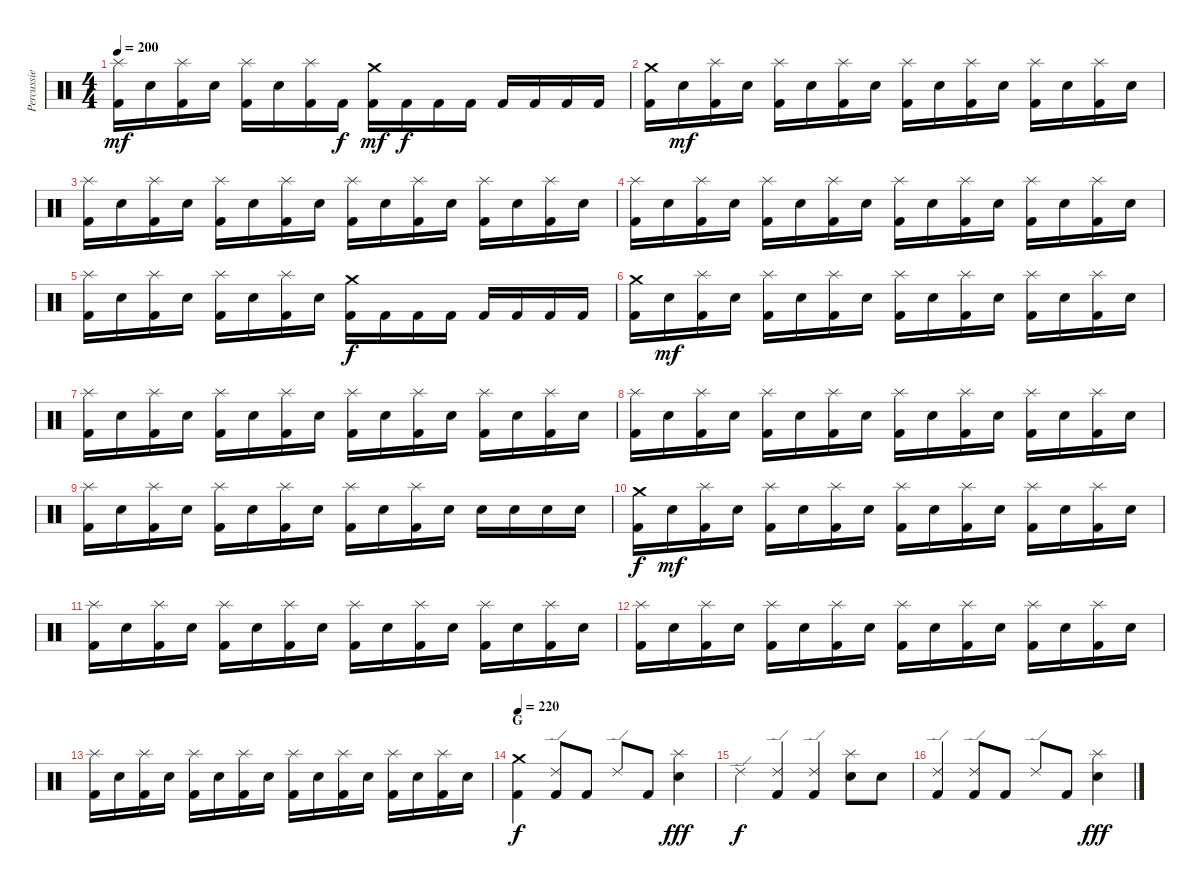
\track ("Percussie" "Percussie") {instrument percussion}
\staff {score}
\articulation defaults
\ts (4 4)
\tempo 200
\clef neutral
\ks c
("Splash (hit)" "Kick (hit) 2").16{dy mf} "Electric Snare (hit)".16 ("Splash (hit)" "Kick (hit) 2").16 "Electric Snare (hit)".16 ("Splash (hit)" "Kick (hit) 2").16 "Electric Snare (hit)".16 ("Splash (hit)" "Kick (hit) 2").16 "Kick (hit) 2".16{dy f} ("Crash medium (hit)" "Kick (hit) 2").16{dy mf} "Kick (hit) 2".16{dy f} "Kick (hit) 2".16 "Kick (hit) 2".16 "Kick (hit) 2".16 "Kick (hit) 2".16 "Kick (hit) 2".16 "Kick (hit) 2".16 |
("Crash medium (hit)" "Kick (hit) 2").16 "Electric Snare (hit)".16{dy mf} ("Splash (hit)" "Kick (hit) 2").16 "Electric Snare (hit)".16 ("Splash (hit)" "Kick (hit) 2").16 "Electric Snare (hit)".16 ("Splash (hit)" "Kick (hit) 2").16 "Electric Snare (hit)".16 ("Splash (hit)" "Kick (hit) 2").16 "Electric Snare (hit)".16 ("Splash (hit)" "Kick (hit) 2").16 "Electric Snare (hit)".16 ("Splash (hit)" "Kick (hit) 2").16 "Electric Snare (hit)".16 ("Splash (hit)" "Kick (hit) 2").16 "Electric Snare (hit)".16 |
("Splash (hit)" "Kick (hit) 2").16 "Electric Snare (hit)".16 ("Splash (hit)" "Kick (hit) 2").16 "Electric Snare (hit)".16 ("Splash (hit)" "Kick (hit) 2").16 "Electric Snare (hit)".16 ("Splash (hit)" "Kick (hit) 2").16 "Electric Snare (hit)".16 ("Splash (hit)" "Kick (hit) 2").16 "Electric Snare (hit)".16 ("Splash (hit)" "Kick (hit) 2").16 "Electric Snare (hit)".16 ("Splash (hit)" "Kick (hit) 2").16 "Electric Snare (hit)".16 ("Splash (hit)" "Kick (hit) 2").16 "Electric Snare (hit)".16 |
("Splash (hit)" "Kick (hit) 2").16 "Electric Snare (hit)".16 ("Splash (hit)" "Kick (hit) 2").16 "Electric Snare (hit)".16 ("Splash (hit)" "Kick (hit) 2").16 "Electric Snare (hit)".16 ("Splash (hit)" "Kick (hit) 2").16 "Electric Snare (hit)".16 ("Splash (hit)" "Kick (hit) 2").16 "Electric Snare (hit)".16 ("Splash (hit)" "Kick (hit) 2").16 "Electric Snare (hit)".16 ("Splash (hit)" "Kick (hit) 2").16 "Electric Snare (hit)".16 ("Splash (hit)" "Kick (hit) 2").16 "Electric Snare (hit)".16 |
("Splash (hit)" "Kick (hit) 2").16 "Electric Snare (hit)".16 ("Splash (hit)" "Kick (hit) 2").16 "Electric Snare (hit)".16 ("Splash (hit)" "Kick (hit) 2").16 "Electric Snare (hit)".16 ("Splash (hit)" "Kick (hit) 2").16 "Electric Snare (hit)".16 ("Crash medium (hit)" "Kick (hit) 2").16{dy f} "Kick (hit) 2".16 "Kick (hit) 2".16 "Kick (hit) 2".16 "Kick (hit) 2".16 "Kick (hit) 2".16 "Kick (hit) 2".16 "Kick (hit) 2".16 |
("Crash medium (hit)" "Kick (hit) 2").16 "Electric Snare (hit)".16{dy mf} ("Splash (hit)" "Kick (hit) 2").16 "Electric Snare (hit)".16 ("Splash (hit)" "Kick (hit) 2").16 "Electric Snare (hit)".16 ("Splash (hit)" "Kick (hit) 2").16 "Electric Snare (hit)".16 ("Splash (hit)" "Kick (hit) 2").16 "Electric Snare (hit)".16 ("Splash (hit)" "Kick (hit) 2").16 "Electric Snare (hit)".16 ("Splash (hit)" "Kick (hit) 2").16 "Electric Snare (hit)".16 ("Splash (hit)" "Kick (hit) 2").16 "Electric Snare (hit)".16 |
("Splash (hit)" "Kick (hit) 2").16 "Electric Snare (hit)".16 ("Splash (hit)" "Kick (hit) 2").16 "Electric Snare (hit)".16 ("Splash (hit)" "Kick (hit) 2").16 "Electric Snare (hit)".16 ("Splash (hit)" "Kick (hit) 2").16 "Electric Snare (hit)".16 ("Splash (hit)" "Kick (hit) 2").16 "Electric Snare (hit)".16 ("Splash (hit)" "Kick (hit) 2").16 "Electric Snare (hit)".16 ("Splash (hit)" "Kick (hit) 2").16 "Electric Snare (hit)".16 ("Splash (hit)" "Kick (hit) 2").16 "Electric Snare (hit)".16 |
("Splash (hit)" "Kick (hit) 2").16 "Electric Snare (hit)".16 ("Splash (hit)" "Kick (hit) 2").16 "Electric Snare (hit)".16 ("Splash (hit)" "Kick (hit) 2").16 "Electric Snare (hit)".16 ("Splash (hit)" "Kick (hit) 2").16 "Electric Snare (hit)".16 ("Splash (hit)" "Kick (hit) 2").16 "Electric Snare (hit)".16 ("Splash (hit)" "Kick (hit) 2").16 "Electric Snare (hit)".16 ("Splash (hit)" "Kick (hit) 2").16 "Electric Snare (hit)".16 ("Splash (hit)" "Kick (hit) 2").16 "Electric Snare (hit)".16 |
("Splash (hit)" "Kick (hit) 2").16 "Electric Snare (hit)".16 ("Splash (hit)" "Kick (hit) 2").16 "Electric Snare (hit)".16 ("Splash (hit)" "Kick (hit) 2").16 "Electric Snare (hit)".16 ("Splash (hit)" "Kick (hit) 2").16 "Electric Snare (hit)".16 ("Splash (hit)" "Kick (hit) 2").16 "Electric Snare (hit)".16 ("Splash (hit)" "Kick (hit) 2").16 "Electric Snare (hit)".16 "Electric Snare (hit)".16 "Electric Snare (hit)".16 "Electric Snare (hit)".16 "Electric Snare (hit)".16 |
("Crash medium (hit)" "Kick (hit) 2").16{dy f} "Electric Snare (hit)".16{dy mf} ("Splash (hit)" "Kick (hit) 2").16 "Electric Snare (hit)".16 ("Splash (hit)" "Kick (hit) 2").16 "Electric Snare (hit)".16 ("Splash (hit)" "Kick (hit) 2").16 "Electric Snare (hit)".16 ("Splash (hit)" "Kick (hit) 2").16 "Electric Snare (hit)".16 ("Splash (hit)" "Kick (hit) 2").16 "Electric Snare (hit)".16 ("Splash (hit)" "Kick (hit) 2").16 "Electric Snare (hit)".16 ("Splash (hit)" "Kick (hit) 2").16 "Electric Snare (hit)".16 |
("Splash (hit)" "Kick (hit) 2").16 "Electric Snare (hit)".16 ("Splash (hit)" "Kick (hit) 2").16 "Electric Snare (hit)".16 ("Splash (hit)" "Kick (hit) 2").16 "Electric Snare (hit)".16 ("Splash (hit)" "Kick (hit) 2").16 "Electric Snare (hit)".16 ("Splash (hit)" "Kick (hit) 2").16 "Electric Snare (hit)".16 ("Splash (hit)" "Kick (hit) 2").16 "Electric Snare (hit)".16 ("Splash (hit)" "Kick (hit) 2").16 "Electric Snare (hit)".16 ("Splash (hit)" "Kick (hit) 2").16 "Electric Snare (hit)".16 |
("Splash (hit)" "Kick (hit) 2").16 "Electric Snare (hit)".16 ("Splash (hit)" "Kick (hit) 2").16 "Electric Snare (hit)".16 ("Splash (hit)" "Kick (hit) 2").16 "Electric Snare (hit)".16 ("Splash (hit)" "Kick (hit) 2").16 "Electric Snare (hit)".16 ("Splash (hit)" "Kick (hit) 2").16 "Electric Snare (hit)".16 ("Splash (hit)" "Kick (hit) 2").16 "Electric Snare (hit)".16 ("Splash (hit)" "Kick (hit) 2").16 "Electric Snare (hit)".16 ("Splash (hit)" "Kick (hit) 2").16 "Electric Snare (hit)".16 |
("Splash (hit)" "Kick (hit) 2").16 "Electric Snare (hit)".16 ("Splash (hit)" "Kick (hit) 2").16 "Electric Snare (hit)".16 ("Splash (hit)" "Kick (hit) 2").16 "Electric Snare (hit)".16 ("Splash (hit)" "Kick (hit) 2").16 "Electric Snare (hit)".16 ("Splash (hit)" "Kick (hit) 2").16 "Electric Snare (hit)".16 ("Splash (hit)" "Kick (hit) 2").16 "Electric Snare (hit)".16 ("Splash (hit)" "Kick (hit) 2").16 "Electric Snare (hit)".16 ("Splash (hit)" "Kick (hit) 2").16 "Electric Snare (hit)".16 |
\section ("" "G")
\tempo 220
("Crash medium (hit)" "Kick (hit) 2").4{dy f} ("Ride (edge) 2" "Kick (hit) 2").8 "Kick (hit) 2".8 "Ride (edge) 2".8 "Kick (hit) 2".8 ("Splash (hit)" "Electric Snare (hit)").4{dy fff} |
"Ride (edge) 2".4{dy f} ("Ride (edge) 2" "Kick (hit) 2").4 ("Ride (edge) 2" "Kick (hit) 2").4 ("Splash (hit)" "Electric Snare (hit)").8 "Electric Snare (hit)".8 |
("Ride (edge) 2" "Kick (hit) 2").4 ("Ride (edge) 2" "Kick (hit) 2").8 "Kick (hit) 2".8 "Ride (edge) 2".8 "Kick (hit) 2".8 ("Splash (hit)" "Electric Snare (hit)").4{dy fff}
